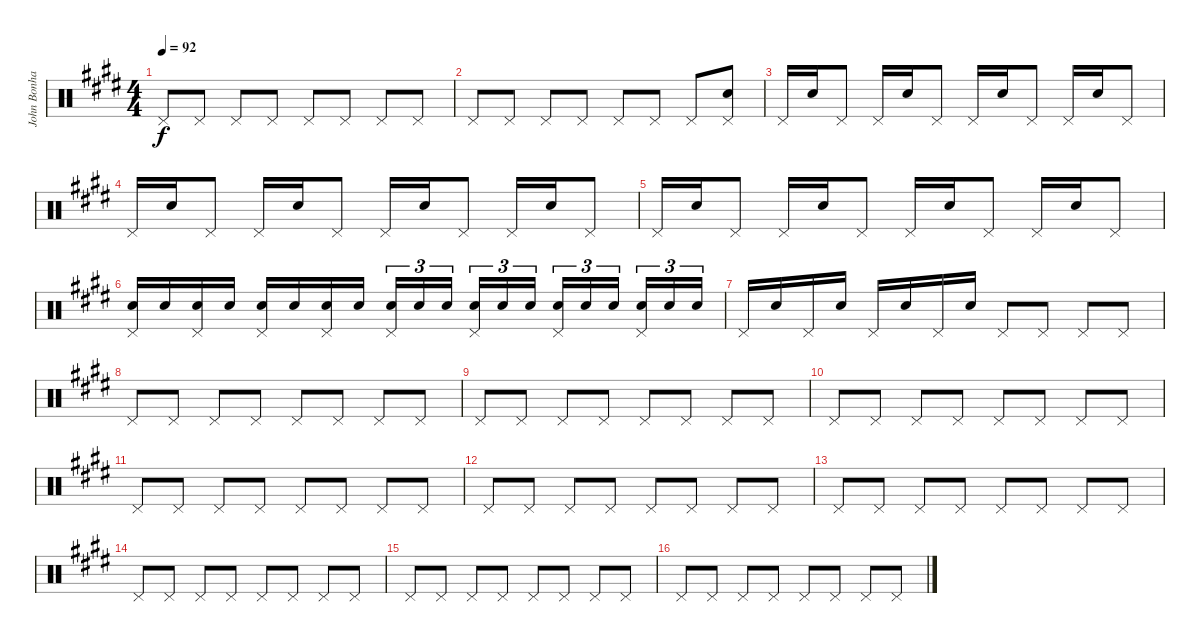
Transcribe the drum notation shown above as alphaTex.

\track ("John Bonham Drums" "John Bonha") {instrument percussion}
\staff {score}
\articulation defaults
\ts (4 4)
\tempo 92
\clef neutral
\ks e "Pedal Hi-Hat (hit)".8{dy f} "Pedal Hi-Hat (hit)".8 "Pedal Hi-Hat (hit)".8 "Pedal Hi-Hat (hit)".8 "Pedal Hi-Hat (hit)".8 "Pedal Hi-Hat (hit)".8 "Pedal Hi-Hat (hit)".8 "Pedal Hi-Hat (hit)".8
|
"Pedal Hi-Hat (hit)".8 "Pedal Hi-Hat (hit)".8 "Pedal Hi-Hat (hit)".8 "Pedal Hi-Hat (hit)".8 "Pedal Hi-Hat (hit)".8 "Pedal Hi-Hat (hit)".8 "Pedal Hi-Hat (hit)".8 ("Pedal Hi-Hat (hit)" "Snare (hit) 2").8 |
"Pedal Hi-Hat (hit)".16 "Snare (hit) 2".16 "Pedal Hi-Hat (hit)".8 "Pedal Hi-Hat (hit)".16 "Snare (hit) 2".16 "Pedal Hi-Hat (hit)".8 "Pedal Hi-Hat (hit)".16 "Snare (hit) 2".16 "Pedal Hi-Hat (hit)".8 "Pedal Hi-Hat (hit)".16 "Snare (hit) 2".16 "Pedal Hi-Hat (hit)".8 |
"Pedal Hi-Hat (hit)".16 "Snare (hit) 2".16 "Pedal Hi-Hat (hit)".8 "Pedal Hi-Hat (hit)".16 "Snare (hit) 2".16 "Pedal Hi-Hat (hit)".8 "Pedal Hi-Hat (hit)".16 "Snare (hit) 2".16 "Pedal Hi-Hat (hit)".8 "Pedal Hi-Hat (hit)".16 "Snare (hit) 2".16 "Pedal Hi-Hat (hit)".8 |
"Pedal Hi-Hat (hit)".16 "Snare (hit) 2".16 "Pedal Hi-Hat (hit)".8 "Pedal Hi-Hat (hit)".16 "Snare (hit) 2".16 "Pedal Hi-Hat (hit)".8 "Pedal Hi-Hat (hit)".16 "Snare (hit) 2".16 "Pedal Hi-Hat (hit)".8 "Pedal Hi-Hat (hit)".16 "Snare (hit) 2".16 "Pedal Hi-Hat (hit)".8 |
("Pedal Hi-Hat (hit)" "Snare (hit) 2").16 "Snare (hit) 2".16 ("Pedal Hi-Hat (hit)" "Snare (hit) 2").16 "Snare (hit) 2".16 ("Pedal Hi-Hat (hit)" "Snare (hit) 2").16 "Snare (hit) 2".16 ("Pedal Hi-Hat (hit)" "Snare (hit) 2").16 "Snare (hit) 2".16 ("Pedal Hi-Hat (hit)" "Snare (hit) 2").16{tu (3 2)} "Snare (hit) 2".16{tu (3 2)} "Snare (hit) 2".16{tu (3 2) beam splitsecondary} ("Pedal Hi-Hat (hit)" "Snare (hit) 2").16{tu (3 2)} "Snare (hit) 2".16{tu (3 2)} "Snare (hit) 2".16{tu (3 2)} ("Pedal Hi-Hat (hit)" "Snare (hit) 2").16{tu (3 2)} "Snare (hit) 2".16{tu (3 2)} "Snare (hit) 2".16{tu (3 2) beam splitsecondary} ("Pedal Hi-Hat (hit)" "Snare (hit) 2").16{tu (3 2)} "Snare (hit) 2".16{tu (3 2)} "Snare (hit) 2".16{tu (3 2)} |
"Pedal Hi-Hat (hit)".16 "Snare (hit) 2".16 "Pedal Hi-Hat (hit)".16 "Snare (hit) 2".16 "Pedal Hi-Hat (hit)".16 "Snare (hit) 2".16 "Pedal Hi-Hat (hit)".16 "Snare (hit) 2".16 "Pedal Hi-Hat (hit)".8 "Pedal Hi-Hat (hit)".8 "Pedal Hi-Hat (hit)".8 "Pedal Hi-Hat (hit)".8 |
"Pedal Hi-Hat (hit)".8 "Pedal Hi-Hat (hit)".8 "Pedal Hi-Hat (hit)".8 "Pedal Hi-Hat (hit)".8 "Pedal Hi-Hat (hit)".8 "Pedal Hi-Hat (hit)".8 "Pedal Hi-Hat (hit)".8 "Pedal Hi-Hat (hit)".8 |
"Pedal Hi-Hat (hit)".8 "Pedal Hi-Hat (hit)".8 "Pedal Hi-Hat (hit)".8 "Pedal Hi-Hat (hit)".8 "Pedal Hi-Hat (hit)".8 "Pedal Hi-Hat (hit)".8 "Pedal Hi-Hat (hit)".8 "Pedal Hi-Hat (hit)".8 |
"Pedal Hi-Hat (hit)".8 "Pedal Hi-Hat (hit)".8 "Pedal Hi-Hat (hit)".8 "Pedal Hi-Hat (hit)".8 "Pedal Hi-Hat (hit)".8 "Pedal Hi-Hat (hit)".8 "Pedal Hi-Hat (hit)".8 "Pedal Hi-Hat (hit)".8 |
"Pedal Hi-Hat (hit)".8 "Pedal Hi-Hat (hit)".8 "Pedal Hi-Hat (hit)".8 "Pedal Hi-Hat (hit)".8 "Pedal Hi-Hat (hit)".8 "Pedal Hi-Hat (hit)".8 "Pedal Hi-Hat (hit)".8 "Pedal Hi-Hat (hit)".8 |
"Pedal Hi-Hat (hit)".8 "Pedal Hi-Hat (hit)".8 "Pedal Hi-Hat (hit)".8 "Pedal Hi-Hat (hit)".8 "Pedal Hi-Hat (hit)".8 "Pedal Hi-Hat (hit)".8 "Pedal Hi-Hat (hit)".8 "Pedal Hi-Hat (hit)".8 |
"Pedal Hi-Hat (hit)".8 "Pedal Hi-Hat (hit)".8 "Pedal Hi-Hat (hit)".8 "Pedal Hi-Hat (hit)".8 "Pedal Hi-Hat (hit)".8 "Pedal Hi-Hat (hit)".8 "Pedal Hi-Hat (hit)".8 "Pedal Hi-Hat (hit)".8 |
"Pedal Hi-Hat (hit)".8 "Pedal Hi-Hat (hit)".8 "Pedal Hi-Hat (hit)".8 "Pedal Hi-Hat (hit)".8 "Pedal Hi-Hat (hit)".8 "Pedal Hi-Hat (hit)".8 "Pedal Hi-Hat (hit)".8 "Pedal Hi-Hat (hit)".8 |
"Pedal Hi-Hat (hit)".8 "Pedal Hi-Hat (hit)".8 "Pedal Hi-Hat (hit)".8 "Pedal Hi-Hat (hit)".8 "Pedal Hi-Hat (hit)".8 "Pedal Hi-Hat (hit)".8 "Pedal Hi-Hat (hit)".8 "Pedal Hi-Hat (hit)".8 |
"Pedal Hi-Hat (hit)".8 "Pedal Hi-Hat (hit)".8 "Pedal Hi-Hat (hit)".8 "Pedal Hi-Hat (hit)".8 "Pedal Hi-Hat (hit)".8 "Pedal Hi-Hat (hit)".8 "Pedal Hi-Hat (hit)".8 "Pedal Hi-Hat (hit)".8
